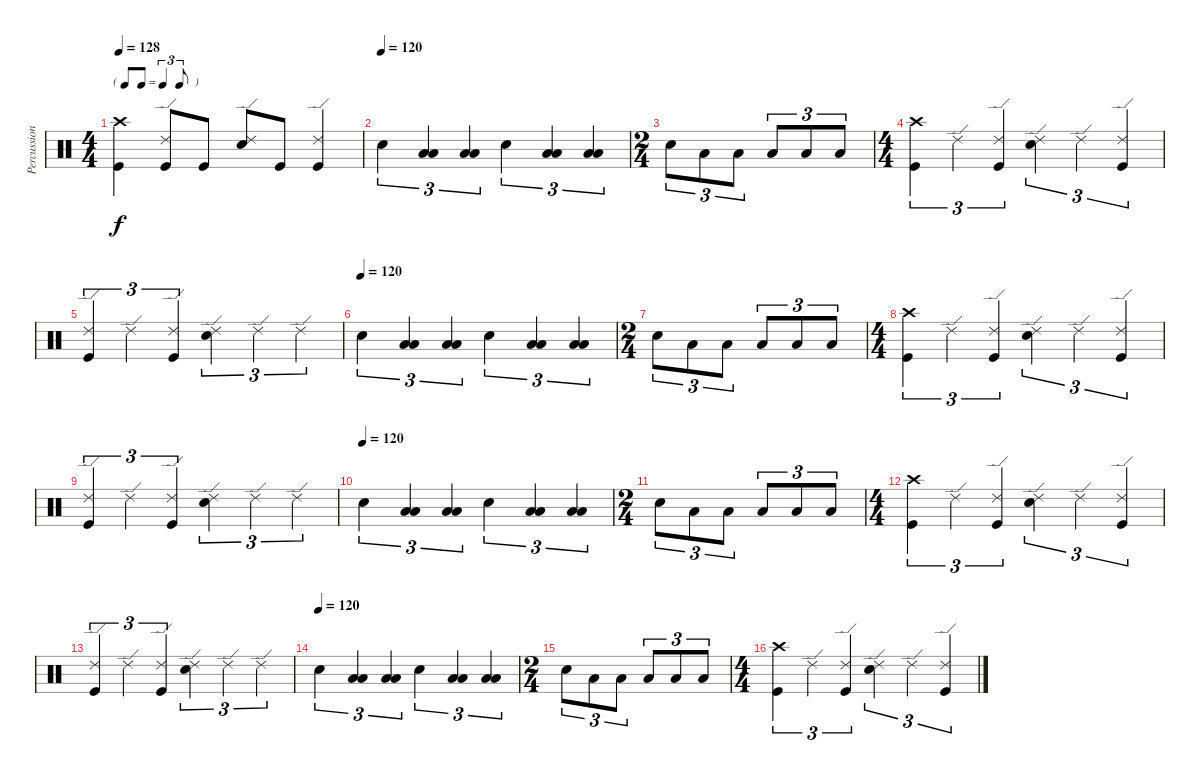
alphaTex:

\track ("Percussion" "Percussion") {instrument percussion}
\staff {score}
\articulation defaults
\ts (4 4)
\tf triplet8th
\tempo 128
\clef neutral
\ks c
("Crash high (hit)" "Kick (hit)").4{dy f} ("Ride (edge) 2" "Kick (hit)").8 "Kick (hit)".8 ("Ride (edge) 2" "Electric Snare (hit)").8 "Kick (hit)".8 ("Ride (edge) 2" "Kick (hit)").4 |
\tempo (120)
"Electric Snare (hit)".4{tu (3 2)} ("Low Tom (hit)" "Low Floor Tom (hit)").4{tu (3 2)} ("Low Tom (hit)" "Low Floor Tom (hit)").4{tu (3 2)} "Electric Snare (hit)".4{tu (3 2)} ("Low Tom (hit)" "Low Floor Tom (hit)").4{tu (3 2)} ("Low Tom (hit)" "Low Floor Tom (hit)").4{tu (3 2)} |
\ts (2 4)
"Electric Snare (hit)".8{tu (3 2)} "Low Tom (hit)".8{tu (3 2)} "Low Tom (hit)".8{tu (3 2)} "Low Floor Tom (hit)".8{tu (3 2)} "Low Floor Tom (hit)".8{tu (3 2)} "Low Floor Tom (hit)".8{tu (3 2)} |
\ts (4 4)
("Crash high (hit)" "Kick (hit)").4{tu (3 2)} "Ride (edge) 2".4{tu (3 2)} ("Ride (edge) 2" "Kick (hit)").4{tu (3 2)} ("Ride (edge) 2" "Electric Snare (hit)").4{tu (3 2)} "Ride (edge) 2".4{tu (3 2)} ("Ride (edge) 2" "Kick (hit)").4{tu (3 2)} |
("Ride (edge) 2" "Kick (hit)").4{tu (3 2)} "Ride (edge) 2".4{tu (3 2)} ("Ride (edge) 2" "Kick (hit)").4{tu (3 2)} ("Ride (edge) 2" "Electric Snare (hit)").4{tu (3 2)} "Ride (edge) 2".4{tu (3 2)} "Ride (edge) 2".4{tu (3 2)} |
\tempo (120)
"Electric Snare (hit)".4{tu (3 2)} ("Low Tom (hit)" "Low Floor Tom (hit)").4{tu (3 2)} ("Low Tom (hit)" "Low Floor Tom (hit)").4{tu (3 2)} "Electric Snare (hit)".4{tu (3 2)} ("Low Tom (hit)" "Low Floor Tom (hit)").4{tu (3 2)} ("Low Tom (hit)" "Low Floor Tom (hit)").4{tu (3 2)} |
\ts (2 4)
"Electric Snare (hit)".8{tu (3 2)} "Low Tom (hit)".8{tu (3 2)} "Low Tom (hit)".8{tu (3 2)} "Low Floor Tom (hit)".8{tu (3 2)} "Low Floor Tom (hit)".8{tu (3 2)} "Low Floor Tom (hit)".8{tu (3 2)} |
\ts (4 4)
("Crash high (hit)" "Kick (hit)").4{tu (3 2)} "Ride (edge) 2".4{tu (3 2)} ("Ride (edge) 2" "Kick (hit)").4{tu (3 2)} ("Ride (edge) 2" "Electric Snare (hit)").4{tu (3 2)} "Ride (edge) 2".4{tu (3 2)} ("Ride (edge) 2" "Kick (hit)").4{tu (3 2)} |
("Ride (edge) 2" "Kick (hit)").4{tu (3 2)} "Ride (edge) 2".4{tu (3 2)} ("Ride (edge) 2" "Kick (hit)").4{tu (3 2)} ("Ride (edge) 2" "Electric Snare (hit)").4{tu (3 2)} "Ride (edge) 2".4{tu (3 2)} "Ride (edge) 2".4{tu (3 2)} |
\tempo (120)
"Electric Snare (hit)".4{tu (3 2)} ("Low Tom (hit)" "Low Floor Tom (hit)").4{tu (3 2)} ("Low Tom (hit)" "Low Floor Tom (hit)").4{tu (3 2)} "Electric Snare (hit)".4{tu (3 2)} ("Low Tom (hit)" "Low Floor Tom (hit)").4{tu (3 2)} ("Low Tom (hit)" "Low Floor Tom (hit)").4{tu (3 2)} |
\ts (2 4)
"Electric Snare (hit)".8{tu (3 2)} "Low Tom (hit)".8{tu (3 2)} "Low Tom (hit)".8{tu (3 2)} "Low Floor Tom (hit)".8{tu (3 2)} "Low Floor Tom (hit)".8{tu (3 2)} "Low Floor Tom (hit)".8{tu (3 2)} |
\ts (4 4)
("Crash high (hit)" "Kick (hit)").4{tu (3 2)} "Ride (edge) 2".4{tu (3 2)} ("Ride (edge) 2" "Kick (hit)").4{tu (3 2)} ("Ride (edge) 2" "Electric Snare (hit)").4{tu (3 2)} "Ride (edge) 2".4{tu (3 2)} ("Ride (edge) 2" "Kick (hit)").4{tu (3 2)} |
("Ride (edge) 2" "Kick (hit)").4{tu (3 2)} "Ride (edge) 2".4{tu (3 2)} ("Ride (edge) 2" "Kick (hit)").4{tu (3 2)} ("Ride (edge) 2" "Electric Snare (hit)").4{tu (3 2)} "Ride (edge) 2".4{tu (3 2)} "Ride (edge) 2".4{tu (3 2)} |
\tempo (120)
"Electric Snare (hit)".4{tu (3 2)} ("Low Tom (hit)" "Low Floor Tom (hit)").4{tu (3 2)} ("Low Tom (hit)" "Low Floor Tom (hit)").4{tu (3 2)} "Electric Snare (hit)".4{tu (3 2)} ("Low Tom (hit)" "Low Floor Tom (hit)").4{tu (3 2)} ("Low Tom (hit)" "Low Floor Tom (hit)").4{tu (3 2)} |
\ts (2 4)
"Electric Snare (hit)".8{tu (3 2)} "Low Tom (hit)".8{tu (3 2)} "Low Tom (hit)".8{tu (3 2)} "Low Floor Tom (hit)".8{tu (3 2)} "Low Floor Tom (hit)".8{tu (3 2)} "Low Floor Tom (hit)".8{tu (3 2)} |
\ts (4 4)
("Crash high (hit)" "Kick (hit)").4{tu (3 2)} "Ride (edge) 2".4{tu (3 2)} ("Ride (edge) 2" "Kick (hit)").4{tu (3 2)} ("Ride (edge) 2" "Electric Snare (hit)").4{tu (3 2)} "Ride (edge) 2".4{tu (3 2)} ("Ride (edge) 2" "Kick (hit)").4{tu (3 2)}
